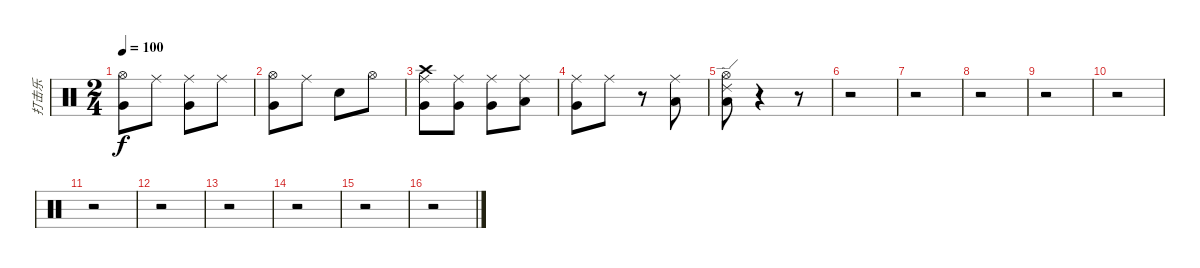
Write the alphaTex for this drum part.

\track ("打击乐" "打击乐") {instrument percussion}
\staff {score}
\articulation defaults
\ts (2 4)
\tempo 100
\clef neutral
\ks c
("Hi-Hat (open)" "Very Low Tom (hit)").8{dy f} "Ride (middle)".8 ("Ride (middle)" "Very Low Tom (hit)").8 "Ride (middle)".8 |
("Hi-Hat (open)" "Very Low Tom (hit)").8 "Ride (middle)".8 "Electric Snare (hit)".8 "Hi-Hat (open)".8 |
("Ride (middle)" "Crash high (hit)" "Very Low Tom (hit)").8 ("Ride (middle)" "Very Low Tom (hit)").8 ("Ride (middle)" "Very Low Tom (hit)").8 ("Ride (middle)" "Low Floor Tom (hit)").8 |
("Ride (middle)" "Very Low Tom (hit)").8 "Ride (middle)".8 r.8 ("Ride (middle)" "Low Floor Tom (hit)").8 |
("Ride (edge) 2" "Low Tom (hit)" "Hi-Hat (open)").8 r.4 r.8 |
r.2 |
r.2 |
r.2 |
r.2 |
r.2 |
r.2 |
r.2 |
r.2 |
r.2 |
r.2 |
r.2
